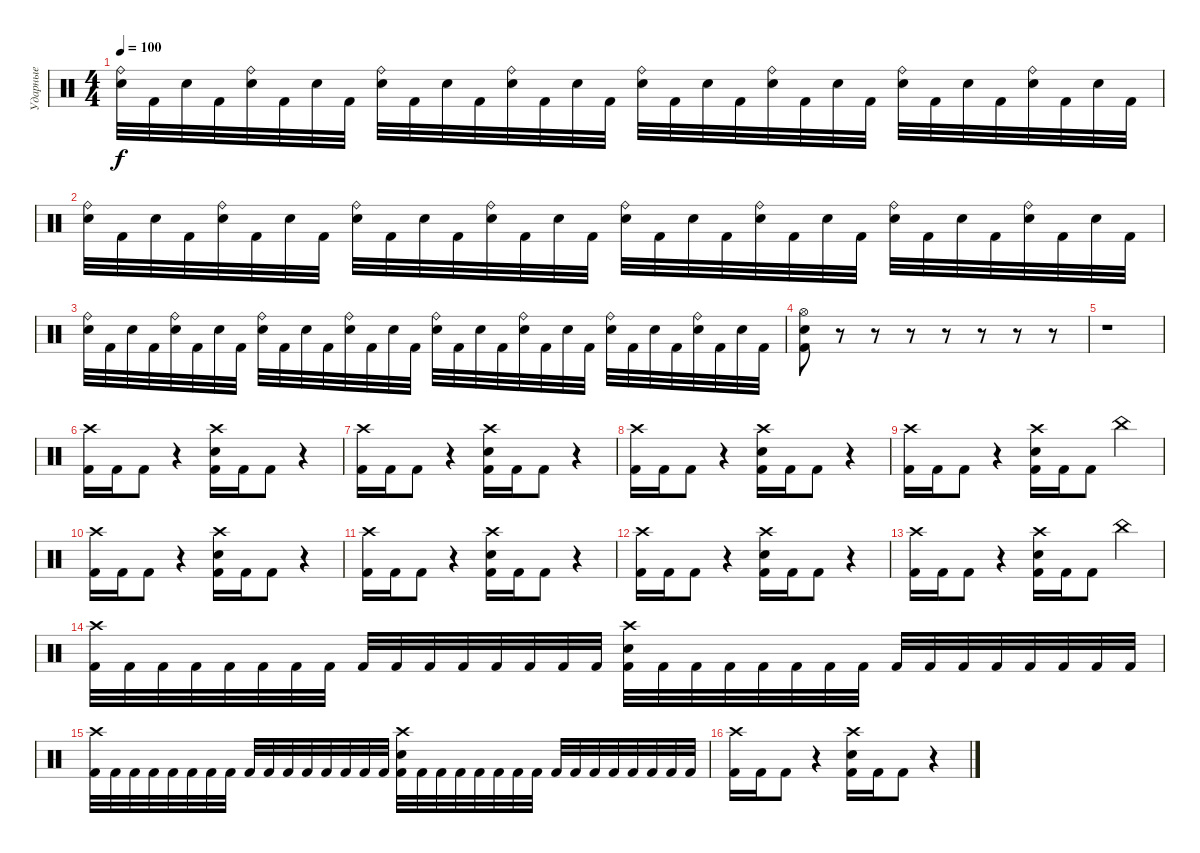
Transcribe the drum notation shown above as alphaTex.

\track ("Ударные" "Ударные") {instrument percussion}
\staff
\articulation defaults
\ts (4 4)
\tempo 100
\clef neutral
\ks c
("Ride (bell)" "Electric Snare (hit)").32{dy f} "Kick (hit) 2".32 "Electric Snare (hit)".32 "Kick (hit) 2".32 ("Ride (bell)" "Electric Snare (hit)").32 "Kick (hit) 2".32 "Electric Snare (hit)".32 "Kick (hit) 2".32 ("Ride (bell)" "Electric Snare (hit)").32 "Kick (hit) 2".32 "Electric Snare (hit)".32 "Kick (hit) 2".32 ("Ride (bell)" "Electric Snare (hit)").32 "Kick (hit) 2".32 "Electric Snare (hit)".32 "Kick (hit) 2".32 ("Ride (bell)" "Electric Snare (hit)").32 "Kick (hit) 2".32 "Electric Snare (hit)".32 "Kick (hit) 2".32 ("Ride (bell)" "Electric Snare (hit)").32 "Kick (hit) 2".32 "Electric Snare (hit)".32 "Kick (hit) 2".32 ("Ride (bell)" "Electric Snare (hit)").32 "Kick (hit) 2".32 "Electric Snare (hit)".32 "Kick (hit) 2".32 ("Ride (bell)" "Electric Snare (hit)").32 "Kick (hit) 2".32 "Electric Snare (hit)".32 "Kick (hit) 2".32 |
("Ride (bell)" "Electric Snare (hit)").32 "Kick (hit) 2".32 "Electric Snare (hit)".32 "Kick (hit) 2".32 ("Ride (bell)" "Electric Snare (hit)").32 "Kick (hit) 2".32 "Electric Snare (hit)".32 "Kick (hit) 2".32 ("Ride (bell)" "Electric Snare (hit)").32 "Kick (hit) 2".32 "Electric Snare (hit)".32 "Kick (hit) 2".32 ("Ride (bell)" "Electric Snare (hit)").32 "Kick (hit) 2".32 "Electric Snare (hit)".32 "Kick (hit) 2".32 ("Ride (bell)" "Electric Snare (hit)").32 "Kick (hit) 2".32 "Electric Snare (hit)".32 "Kick (hit) 2".32 ("Ride (bell)" "Electric Snare (hit)").32 "Kick (hit) 2".32 "Electric Snare (hit)".32 "Kick (hit) 2".32 ("Ride (bell)" "Electric Snare (hit)").32 "Kick (hit) 2".32 "Electric Snare (hit)".32 "Kick (hit) 2".32 ("Ride (bell)" "Electric Snare (hit)").32 "Kick (hit) 2".32 "Electric Snare (hit)".32 "Kick (hit) 2".32 |
("Ride (bell)" "Electric Snare (hit)").32 "Kick (hit) 2".32 "Electric Snare (hit)".32 "Kick (hit) 2".32 ("Ride (bell)" "Electric Snare (hit)").32 "Kick (hit) 2".32 "Electric Snare (hit)".32 "Kick (hit) 2".32 ("Ride (bell)" "Electric Snare (hit)").32 "Kick (hit) 2".32 "Electric Snare (hit)".32 "Kick (hit) 2".32 ("Ride (bell)" "Electric Snare (hit)").32 "Kick (hit) 2".32 "Electric Snare (hit)".32 "Kick (hit) 2".32 ("Ride (bell)" "Electric Snare (hit)").32 "Kick (hit) 2".32 "Electric Snare (hit)".32 "Kick (hit) 2".32 ("Ride (bell)" "Electric Snare (hit)").32 "Kick (hit) 2".32 "Electric Snare (hit)".32 "Kick (hit) 2".32 ("Ride (bell)" "Electric Snare (hit)").32 "Kick (hit) 2".32 "Electric Snare (hit)".32 "Kick (hit) 2".32 ("Ride (bell)" "Electric Snare (hit)").32 "Kick (hit) 2".32 "Electric Snare (hit)".32 "Kick (hit) 2".32 |
("Hi-Hat (open)" "Electric Snare (hit)" "Kick (hit) 2").8 r.8 r.8 r.8 r.8 r.8 r.8 r.8 |
r.1 |
("Crash high (hit)" "Kick (hit) 2").16 "Kick (hit) 2".16 "Kick (hit) 2".8 r.4 ("Crash high (hit)" "Electric Snare (hit)" "Kick (hit) 2").16 "Kick (hit) 2".16 "Kick (hit) 2".8 r.4 |
("Crash high (hit)" "Kick (hit) 2").16 "Kick (hit) 2".16 "Kick (hit) 2".8 r.4 ("Crash high (hit)" "Electric Snare (hit)" "Kick (hit) 2").16 "Kick (hit) 2".16 "Kick (hit) 2".8 r.4 |
("Crash high (hit)" "Kick (hit) 2").16 "Kick (hit) 2".16 "Kick (hit) 2".8 r.4 ("Crash high (hit)" "Electric Snare (hit)" "Kick (hit) 2").16 "Kick (hit) 2".16 "Kick (hit) 2".8 r.4 |
("Crash high (hit)" "Kick (hit) 2").16 "Kick (hit) 2".16 "Kick (hit) 2".8 r.4 ("Crash high (hit)" "Electric Snare (hit)" "Kick (hit) 2").16 "Kick (hit) 2".16 "Kick (hit) 2".8 "China (hit)".4 |
("Crash high (hit)" "Kick (hit) 2").16 "Kick (hit) 2".16 "Kick (hit) 2".8 r.4 ("Crash high (hit)" "Electric Snare (hit)" "Kick (hit) 2").16 "Kick (hit) 2".16 "Kick (hit) 2".8 r.4 |
("Crash high (hit)" "Kick (hit) 2").16 "Kick (hit) 2".16 "Kick (hit) 2".8 r.4 ("Crash high (hit)" "Electric Snare (hit)" "Kick (hit) 2").16 "Kick (hit) 2".16 "Kick (hit) 2".8 r.4 |
("Crash high (hit)" "Kick (hit) 2").16 "Kick (hit) 2".16 "Kick (hit) 2".8 r.4 ("Crash high (hit)" "Electric Snare (hit)" "Kick (hit) 2").16 "Kick (hit) 2".16 "Kick (hit) 2".8 r.4 |
("Crash high (hit)" "Kick (hit) 2").16 "Kick (hit) 2".16 "Kick (hit) 2".8 r.4 ("Crash high (hit)" "Electric Snare (hit)" "Kick (hit) 2").16 "Kick (hit) 2".16 "Kick (hit) 2".8 "China (hit)".4 |
("Crash high (hit)" "Kick (hit) 2").32 "Kick (hit) 2".32 "Kick (hit) 2".32 "Kick (hit) 2".32 "Kick (hit) 2".32 "Kick (hit) 2".32 "Kick (hit) 2".32 "Kick (hit) 2".32 "Kick (hit) 2".32 "Kick (hit) 2".32 "Kick (hit) 2".32 "Kick (hit) 2".32 "Kick (hit) 2".32 "Kick (hit) 2".32 "Kick (hit) 2".32 "Kick (hit) 2".32 ("Crash high (hit)" "Electric Snare (hit)" "Kick (hit) 2").32 "Kick (hit) 2".32 "Kick (hit) 2".32 "Kick (hit) 2".32 "Kick (hit) 2".32 "Kick (hit) 2".32 "Kick (hit) 2".32 "Kick (hit) 2".32 "Kick (hit) 2".32 "Kick (hit) 2".32 "Kick (hit) 2".32 "Kick (hit) 2".32 "Kick (hit) 2".32 "Kick (hit) 2".32 "Kick (hit) 2".32 "Kick (hit) 2".32 |
("Crash high (hit)" "Kick (hit) 2").32 "Kick (hit) 2".32 "Kick (hit) 2".32 "Kick (hit) 2".32 "Kick (hit) 2".32 "Kick (hit) 2".32 "Kick (hit) 2".32 "Kick (hit) 2".32 "Kick (hit) 2".32 "Kick (hit) 2".32 "Kick (hit) 2".32 "Kick (hit) 2".32 "Kick (hit) 2".32 "Kick (hit) 2".32 "Kick (hit) 2".32 "Kick (hit) 2".32 ("Crash high (hit)" "Electric Snare (hit)" "Kick (hit) 2").32 "Kick (hit) 2".32 "Kick (hit) 2".32 "Kick (hit) 2".32 "Kick (hit) 2".32 "Kick (hit) 2".32 "Kick (hit) 2".32 "Kick (hit) 2".32 "Kick (hit) 2".32 "Kick (hit) 2".32 "Kick (hit) 2".32 "Kick (hit) 2".32 "Kick (hit) 2".32 "Kick (hit) 2".32 "Kick (hit) 2".32 "Kick (hit) 2".32 |
("Crash high (hit)" "Kick (hit) 2").16 "Kick (hit) 2".16 "Kick (hit) 2".8 r.4 ("Crash high (hit)" "Electric Snare (hit)" "Kick (hit) 2").16 "Kick (hit) 2".16 "Kick (hit) 2".8 r.4
